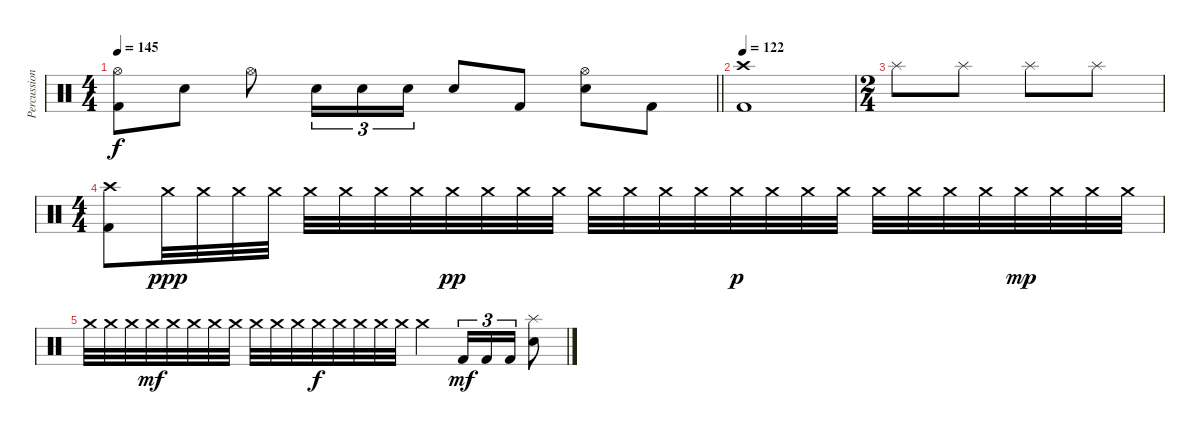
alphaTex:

\track ("Percussion" "Percussion") {instrument percussion}
\staff {score}
\articulation defaults
\ts (4 4)
\tempo 145
\clef neutral
\barLineRight lightlight
\ks c
("Hi-Hat (open)" "Kick (hit) 2").8{dy f} "Electric Snare (hit)".8 "Hi-Hat (open)".8 "Electric Snare (hit)".16{tu (3 2)} "Electric Snare (hit)".16{tu (3 2)} "Electric Snare (hit)".16{tu (3 2)} "Electric Snare (hit)".8 "Kick (hit) 2".8 ("Hi-Hat (open)" "Electric Snare (hit)").8 "Kick (hit) 2".8 |
\section ("" "")
\tempo 122
("Crash high (hit)" "Kick (hit) 2").1 |
\ts (2 4)
"Splash (hit)".8 "Splash (hit)".8 "Splash (hit)".8 "Splash (hit)".8 |
\ts (4 4)
("Crash high (hit)" "Kick (hit) 2").8 "Crash medium (hit)".32{dy ppp} "Crash medium (hit)".32 "Crash medium (hit)".32 "Crash medium (hit)".32 "Crash medium (hit)".32 "Crash medium (hit)".32 "Crash medium (hit)".32 "Crash medium (hit)".32 "Crash medium (hit)".32{dy pp} "Crash medium (hit)".32 "Crash medium (hit)".32 "Crash medium (hit)".32 "Crash medium (hit)".32 "Crash medium (hit)".32 "Crash medium (hit)".32 "Crash medium (hit)".32 "Crash medium (hit)".32{dy p} "Crash medium (hit)".32 "Crash medium (hit)".32 "Crash medium (hit)".32 "Crash medium (hit)".32 "Crash medium (hit)".32 "Crash medium (hit)".32 "Crash medium (hit)".32 "Crash medium (hit)".32{dy mp} "Crash medium (hit)".32 "Crash medium (hit)".32 "Crash medium (hit)".32 |
"Crash medium (hit)".32 "Crash medium (hit)".32 "Crash medium (hit)".32 "Crash medium (hit)".32{dy mf} "Crash medium (hit)".32 "Crash medium (hit)".32 "Crash medium (hit)".32 "Crash medium (hit)".32 "Crash medium (hit)".32 "Crash medium (hit)".32 "Crash medium (hit)".32 "Crash medium (hit)".32{dy f} "Crash medium (hit)".32 "Crash medium (hit)".32 "Crash medium (hit)".32 "Crash medium (hit)".32 "Crash medium (hit)".4 "Kick (hit) 2".16{tu (3 2) dy mf} "Kick (hit) 2".16{tu (3 2)} "Kick (hit) 2".16{tu (3 2)} ("Splash (hit)" "Electric Snare (hit)").8
